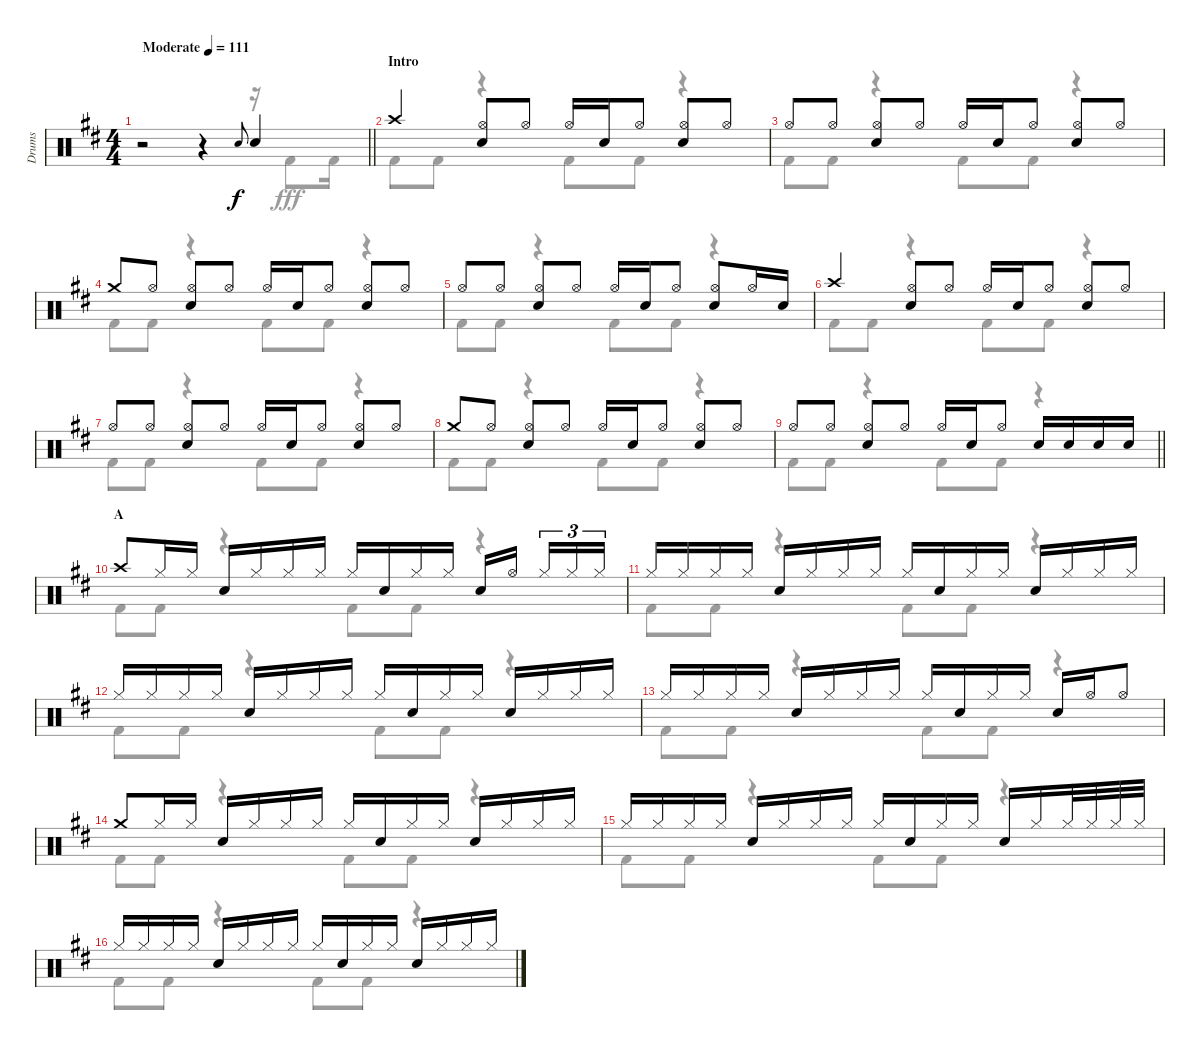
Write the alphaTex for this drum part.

\track ("Drums" "Drums") {instrument percussion}
\staff {score}
\articulation defaults
\voice
\ts (4 4)
\tempo (111 "Moderate")
\clef neutral
\barLineRight lightlight
\ks d
r.2{dy f} r.4 "Snare (hit) 2".8{gr onbeat} "Snare (hit) 2".4 |
\section ("" "Intro")
"Crash high (hit)".4 ("Hi-Hat (open)" "Snare (hit) 2").8 "Hi-Hat (open)".8 "Hi-Hat (open)".16 "Snare (hit) 2".16 "Hi-Hat (open)".8 ("Hi-Hat (open)" "Snare (hit) 2").8 "Hi-Hat (open)".8 |
"Hi-Hat (open)".8 "Hi-Hat (open)".8 ("Hi-Hat (open)" "Snare (hit) 2").8 "Hi-Hat (open)".8 "Hi-Hat (open)".16 "Snare (hit) 2".16 "Hi-Hat (open)".8 ("Hi-Hat (open)" "Snare (hit) 2").8 "Hi-Hat (open)".8 |
"Crash medium (hit)".8 "Hi-Hat (open)".8 ("Hi-Hat (open)" "Snare (hit) 2").8 "Hi-Hat (open)".8 "Hi-Hat (open)".16 "Snare (hit) 2".16 "Hi-Hat (open)".8 ("Hi-Hat (open)" "Snare (hit) 2").8 "Hi-Hat (open)".8 |
"Hi-Hat (open)".8 "Hi-Hat (open)".8 ("Hi-Hat (open)" "Snare (hit) 2").8 "Hi-Hat (open)".8 "Hi-Hat (open)".16 "Snare (hit) 2".16 "Hi-Hat (open)".8 ("Hi-Hat (open)" "Snare (hit) 2").8 "Hi-Hat (open)".16 "Snare (hit) 2".16 |
"Crash high (hit)".4 ("Hi-Hat (open)" "Snare (hit) 2").8 "Hi-Hat (open)".8 "Hi-Hat (open)".16 "Snare (hit) 2".16 "Hi-Hat (open)".8 ("Hi-Hat (open)" "Snare (hit) 2").8 "Hi-Hat (open)".8 |
"Hi-Hat (open)".8 "Hi-Hat (open)".8 ("Hi-Hat (open)" "Snare (hit) 2").8 "Hi-Hat (open)".8 "Hi-Hat (open)".16 "Snare (hit) 2".16 "Hi-Hat (open)".8 ("Hi-Hat (open)" "Snare (hit) 2").8 "Hi-Hat (open)".8 |
"Crash medium (hit)".8 "Hi-Hat (open)".8 ("Hi-Hat (open)" "Snare (hit) 2").8 "Hi-Hat (open)".8 "Hi-Hat (open)".16 "Snare (hit) 2".16 "Hi-Hat (open)".8 ("Hi-Hat (open)" "Snare (hit) 2").8 "Hi-Hat (open)".8 |
\barLineRight lightlight "Hi-Hat (open)".8 "Hi-Hat (open)".8
("Hi-Hat (open)" "Snare (hit) 2").8 "Hi-Hat (open)".8 "Hi-Hat (open)".16 "Snare (hit) 2".16 "Hi-Hat (open)".8 "Snare (hit) 2".16 "Snare (hit) 2".16 "Snare (hit) 2".16 "Snare (hit) 2".16 |
\section ("" "A")
"Crash high (hit)".8 "Hi-Hat (closed)".16 "Hi-Hat (closed)".16 "Snare (hit) 2".16 "Hi-Hat (closed)".16 "Hi-Hat (closed)".16 "Hi-Hat (closed)".16 "Hi-Hat (closed)".16 "Snare (hit) 2".16 "Hi-Hat (closed)".16 "Hi-Hat (closed)".16 "Snare (hit) 2".16 "Hi-Hat (open)".16{beam splitsecondary} "Hi-Hat (closed)".16{tu (3 2)} "Hi-Hat (closed)".16{tu (3 2)} "Hi-Hat (closed)".16{tu (3 2)} |
"Hi-Hat (closed)".16 "Hi-Hat (closed)".16 "Hi-Hat (closed)".16 "Hi-Hat (closed)".16 "Snare (hit) 2".16 "Hi-Hat (closed)".16 "Hi-Hat (closed)".16 "Hi-Hat (closed)".16 "Hi-Hat (closed)".16 "Snare (hit) 2".16 "Hi-Hat (closed)".16 "Hi-Hat (closed)".16 "Snare (hit) 2".16 "Hi-Hat (closed)".16 "Hi-Hat (closed)".16 "Hi-Hat (closed)".16 |
"Hi-Hat (closed)".16 "Hi-Hat (closed)".16 "Hi-Hat (closed)".16 "Hi-Hat (closed)".16 "Snare (hit) 2".16 "Hi-Hat (closed)".16 "Hi-Hat (closed)".16 "Hi-Hat (closed)".16 "Hi-Hat (closed)".16 "Snare (hit) 2".16 "Hi-Hat (closed)".16 "Hi-Hat (closed)".16 "Snare (hit) 2".16 "Hi-Hat (closed)".16 "Hi-Hat (closed)".16 "Hi-Hat (closed)".16 |
"Hi-Hat (closed)".16 "Hi-Hat (closed)".16 "Hi-Hat (closed)".16 "Hi-Hat (closed)".16 "Snare (hit) 2".16 "Hi-Hat (closed)".16 "Hi-Hat (closed)".16 "Hi-Hat (closed)".16 "Hi-Hat (closed)".16 "Snare (hit) 2".16 "Hi-Hat (closed)".16 "Hi-Hat (closed)".16 "Snare (hit) 2".16 "Hi-Hat (open)".16 "Hi-Hat (open)".8 |
"Crash medium (hit)".8 "Hi-Hat (closed)".16 "Hi-Hat (closed)".16 "Snare (hit) 2".16 "Hi-Hat (closed)".16 "Hi-Hat (closed)".16 "Hi-Hat (closed)".16 "Hi-Hat (closed)".16 "Snare (hit) 2".16 "Hi-Hat (closed)".16 "Hi-Hat (closed)".16 "Snare (hit) 2".16 "Hi-Hat (closed)".16 "Hi-Hat (closed)".16 "Hi-Hat (closed)".16 |
"Hi-Hat (closed)".16 "Hi-Hat (closed)".16 "Hi-Hat (closed)".16 "Hi-Hat (closed)".16 "Snare (hit) 2".16 "Hi-Hat (closed)".16 "Hi-Hat (closed)".16 "Hi-Hat (closed)".16 "Hi-Hat (closed)".16 "Snare (hit) 2".16 "Hi-Hat (closed)".16 "Hi-Hat (closed)".16 "Snare (hit) 2".16 "Hi-Hat (closed)".16 "Hi-Hat (closed)".32 "Hi-Hat (closed)".32 "Hi-Hat (closed)".32 "Hi-Hat (closed)".32 |
"Hi-Hat (closed)".16 "Hi-Hat (closed)".16 "Hi-Hat (closed)".16 "Hi-Hat (closed)".16 "Snare (hit) 2".16 "Hi-Hat (closed)".16 "Hi-Hat (closed)".16 "Hi-Hat (closed)".16 "Hi-Hat (closed)".16 "Snare (hit) 2".16 "Hi-Hat (closed)".16 "Hi-Hat (closed)".16 "Snare (hit) 2".16 "Hi-Hat (closed)".16 "Hi-Hat (closed)".16 "Hi-Hat (closed)".16
\voice
\clef neutral
\ottava regular
\simile none
\barLineRight lightlight
\ks d
r.2{dy fff} r.4 r.16 "Kick (hit) 2".8 "Kick (hit) 2".16 |
"Kick (hit) 2".8 "Kick (hit) 2".8 r.4 "Kick (hit) 2".8 "Kick (hit) 2".8 r.4 |
"Kick (hit) 2".8 "Kick (hit) 2".8 r.4 "Kick (hit) 2".8 "Kick (hit) 2".8 r.4 |
"Kick (hit) 2".8 "Kick (hit) 2".8 r.4 "Kick (hit) 2".8 "Kick (hit) 2".8 r.4 |
"Kick (hit) 2".8 "Kick (hit) 2".8 r.4 "Kick (hit) 2".8 "Kick (hit) 2".8 r.4 |
"Kick (hit) 2".8 "Kick (hit) 2".8 r.4 "Kick (hit) 2".8 "Kick (hit) 2".8 r.4 |
"Kick (hit) 2".8 "Kick (hit) 2".8 r.4 "Kick (hit) 2".8 "Kick (hit) 2".8 r.4 |
"Kick (hit) 2".8 "Kick (hit) 2".8 r.4 "Kick (hit) 2".8 "Kick (hit) 2".8 r.4 |
\barLineRight lightlight "Kick (hit) 2".8 "Kick (hit) 2".8
r.4 "Kick (hit) 2".8 "Kick (hit) 2".8 r.4 |
"Kick (hit) 2".8 "Kick (hit) 2".8 r.4 "Kick (hit) 2".8 "Kick (hit) 2".8 r.4 |
"Kick (hit) 2".8 "Kick (hit) 2".8 r.4 "Kick (hit) 2".8 "Kick (hit) 2".8 r.4 |
"Kick (hit) 2".8 "Kick (hit) 2".8 r.4 "Kick (hit) 2".8 "Kick (hit) 2".8 r.4 |
"Kick (hit) 2".8 "Kick (hit) 2".8 r.4 "Kick (hit) 2".8 "Kick (hit) 2".8 r.4 |
"Kick (hit) 2".8 "Kick (hit) 2".8 r.4 "Kick (hit) 2".8 "Kick (hit) 2".8 r.4 |
"Kick (hit) 2".8 "Kick (hit) 2".8 r.4 "Kick (hit) 2".8 "Kick (hit) 2".8 r.4 |
"Kick (hit) 2".8 "Kick (hit) 2".8 r.4 "Kick (hit) 2".8 "Kick (hit) 2".8 r.4
